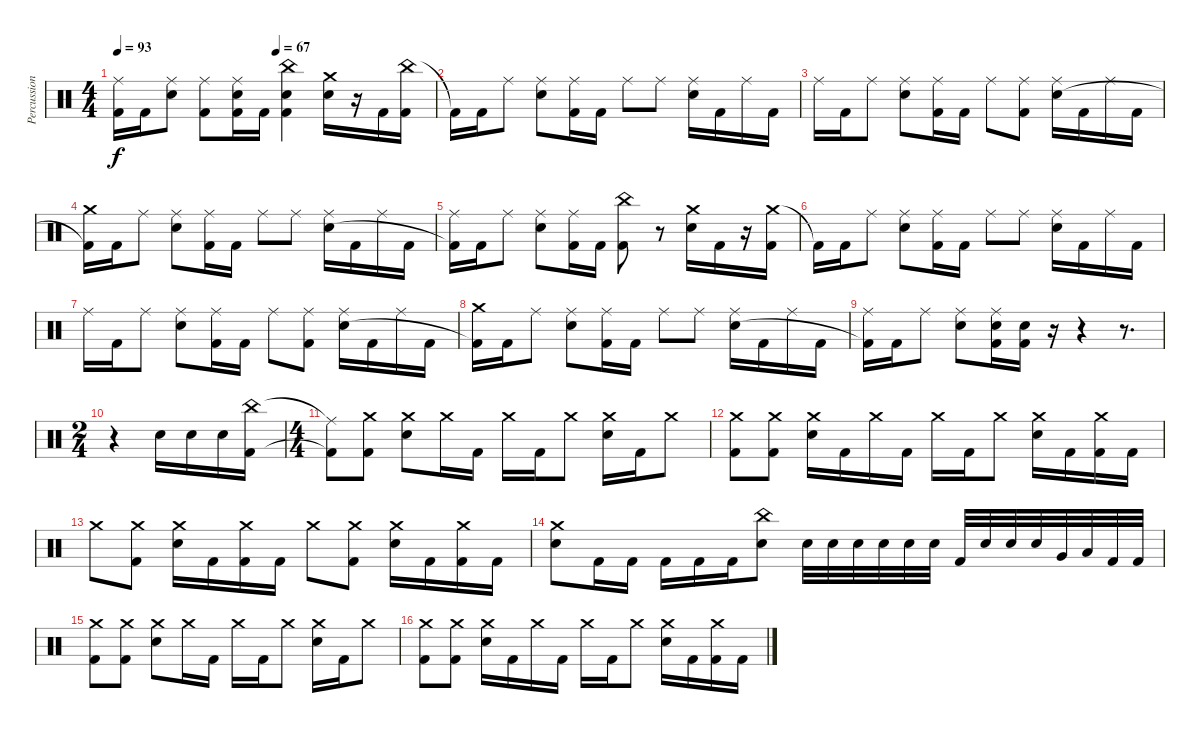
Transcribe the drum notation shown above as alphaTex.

\track ("Percussion" "Percussion") {instrument percussion}
\staff {score}
\articulation defaults
\ts (4 4)
\tempo 93
\tempo (67 0.5)
\clef neutral
\ks c
("Ride (middle)" "Kick (hit) 2"{t}).16{dy f} "Kick (hit) 2".16 ("Ride (middle)" "Electric Snare (hit)").8 ("Ride (middle)" "Kick (hit) 2").8 ("Ride (middle)" "Electric Snare (hit)" "Kick (hit) 2").16 "Kick (hit) 2".16 ("China (hit)" "Electric Snare (hit)" "Kick (hit) 2").4 ("Crash medium (hit)" "Electric Snare (hit)").16 r.16 "Kick (hit) 2".16 ("China (hit)" "Kick (hit) 2").16 |
"Kick (hit) 2"{t}.16 "Kick (hit) 2".16 "Ride (middle)".8 ("Ride (middle)" "Electric Snare (hit)").8 ("Ride (middle)" "Kick (hit) 2").16 "Kick (hit) 2".16 "Ride (middle)".8 "Ride (middle)".8 ("Ride (middle)" "Electric Snare (hit)").16 "Kick (hit) 2".16 "Ride (middle)".16 "Kick (hit) 2".16 |
"Ride (middle)".16 "Kick (hit) 2".16 "Ride (middle)".8 ("Ride (middle)" "Electric Snare (hit)").8 ("Ride (middle)" "Kick (hit) 2").16 "Kick (hit) 2".16 "Ride (middle)".8 ("Ride (middle)" "Kick (hit) 2").8 ("Ride (middle)" "Electric Snare (hit)").16 "Kick (hit) 2".16 "Ride (middle)".16 "Kick (hit) 2".16 |
("Crash medium (hit)" "Kick (hit) 2"{t}).16 "Kick (hit) 2".16 "Ride (middle)".8 ("Ride (middle)" "Electric Snare (hit)").8 ("Ride (middle)" "Kick (hit) 2").16 "Kick (hit) 2".16 "Ride (middle)".8 "Ride (middle)".8 ("Ride (middle)" "Electric Snare (hit)").16 "Kick (hit) 2".16 "Ride (middle)".16 "Kick (hit) 2".16 |
("Ride (middle)" "Kick (hit) 2"{t}).16 "Kick (hit) 2".16 "Ride (middle)".8 ("Ride (middle)" "Electric Snare (hit)").8 ("Ride (middle)" "Kick (hit) 2").16 "Kick (hit) 2".16 ("China (hit)" "Kick (hit) 2").8 r.8 ("Crash medium (hit)" "Electric Snare (hit)").16 "Kick (hit) 2".16 r.16 ("Crash medium (hit)" "Kick (hit) 2").16 |
"Kick (hit) 2"{t}.16 "Kick (hit) 2".16 "Ride (middle)".8 ("Ride (middle)" "Electric Snare (hit)").8 ("Ride (middle)" "Kick (hit) 2").16 "Kick (hit) 2".16 "Ride (middle)".8 "Ride (middle)".8 ("Ride (middle)" "Electric Snare (hit)").16 "Kick (hit) 2".16 "Ride (middle)".16 "Kick (hit) 2".16 |
"Ride (middle)".16 "Kick (hit) 2".16 "Ride (middle)".8 ("Ride (middle)" "Electric Snare (hit)").8 ("Ride (middle)" "Kick (hit) 2").16 "Kick (hit) 2".16 "Ride (middle)".8 ("Ride (middle)" "Kick (hit) 2").8 ("Ride (middle)" "Electric Snare (hit)").16 "Kick (hit) 2".16 "Ride (middle)".16 "Kick (hit) 2".16 |
("Crash medium (hit)" "Kick (hit) 2"{t}).16 "Kick (hit) 2".16 "Ride (middle)".8 ("Ride (middle)" "Electric Snare (hit)").8 ("Ride (middle)" "Kick (hit) 2").16 "Kick (hit) 2".16 "Ride (middle)".8 "Ride (middle)".8 ("Ride (middle)" "Electric Snare (hit)").16 "Kick (hit) 2".16 "Ride (middle)".16 "Kick (hit) 2".16 |
("Ride (middle)" "Kick (hit) 2"{t}).16 "Kick (hit) 2".16 "Ride (middle)".8 ("Ride (middle)" "Electric Snare (hit)").8 ("Ride (middle)" "Electric Snare (hit)" "Kick (hit) 2").16 ("Electric Snare (hit)" "Kick (hit) 2").16 r.16 r.4 r.8{d} |
\ts (2 4)
r.4 "Electric Snare (hit)".16 "Electric Snare (hit)".16 "Electric Snare (hit)".16 ("China (hit)" "Kick (hit) 2").16 |
\ts (4 4)
("Ride (middle)"{t} "Kick (hit) 2"{t}).8 ("Crash medium (hit)" "Kick (hit) 2").8 ("Crash medium (hit)" "Electric Snare (hit)").8 "Crash medium (hit)".16 "Kick (hit) 2".16 "Crash medium (hit)".16 "Kick (hit) 2".16 "Crash medium (hit)".8 ("Crash medium (hit)" "Electric Snare (hit)").16 "Kick (hit) 2".16 "Crash medium (hit)".8 |
("Crash medium (hit)" "Kick (hit) 2").8 ("Crash medium (hit)" "Kick (hit) 2").8 ("Crash medium (hit)" "Electric Snare (hit)").16 "Kick (hit) 2".16 "Crash medium (hit)".16 "Kick (hit) 2".16 "Crash medium (hit)".16 "Kick (hit) 2".16 "Crash medium (hit)".8 ("Crash medium (hit)" "Electric Snare (hit)").16 "Kick (hit) 2".16 ("Crash medium (hit)" "Kick (hit) 2").16 "Kick (hit) 2".16 |
"Crash medium (hit)".8 ("Crash medium (hit)" "Kick (hit) 2").8 ("Crash medium (hit)" "Electric Snare (hit)").16 "Kick (hit) 2".16 ("Crash medium (hit)" "Kick (hit) 2").16 "Kick (hit) 2".16 "Crash medium (hit)".8 ("Crash medium (hit)" "Kick (hit) 2").8 ("Crash medium (hit)" "Electric Snare (hit)").16 "Kick (hit) 2".16 ("Crash medium (hit)" "Kick (hit) 2").16 "Kick (hit) 2".16 |
("Crash medium (hit)" "Electric Snare (hit)").8 "Kick (hit) 2".16 "Kick (hit) 2".16 "Kick (hit) 2".16 "Kick (hit) 2".16 "Kick (hit) 2".16 ("China (hit)" "Electric Snare (hit)").8 "Electric Snare (hit)".32 "Electric Snare (hit)".32 "Electric Snare (hit)".32 "Electric Snare (hit)".32 "Electric Snare (hit)".32 "Electric Snare (hit)".32 "Kick (hit) 2".32 "Electric Snare (hit)".32 "Electric Snare (hit)".32 "Electric Snare (hit)".32 "Very Low Tom (hit)".32 "Low Floor Tom (hit)".32 "Kick (hit) 2".32 "Kick (hit) 2".32 |
("Crash medium (hit)" "Kick (hit) 2").8 ("Crash medium (hit)" "Kick (hit) 2").8 ("Crash medium (hit)" "Electric Snare (hit)").8 "Crash medium (hit)".16 "Kick (hit) 2".16 "Crash medium (hit)".16 "Kick (hit) 2".16 "Crash medium (hit)".8 ("Crash medium (hit)" "Electric Snare (hit)").16 "Kick (hit) 2".16 "Crash medium (hit)".8 |
("Crash medium (hit)" "Kick (hit) 2").8 ("Crash medium (hit)" "Kick (hit) 2").8 ("Crash medium (hit)" "Electric Snare (hit)").16 "Kick (hit) 2".16 "Crash medium (hit)".16 "Kick (hit) 2".16 "Crash medium (hit)".16 "Kick (hit) 2".16 "Crash medium (hit)".8 ("Crash medium (hit)" "Electric Snare (hit)").16 "Kick (hit) 2".16 ("Crash medium (hit)" "Kick (hit) 2").16 "Kick (hit) 2".16
